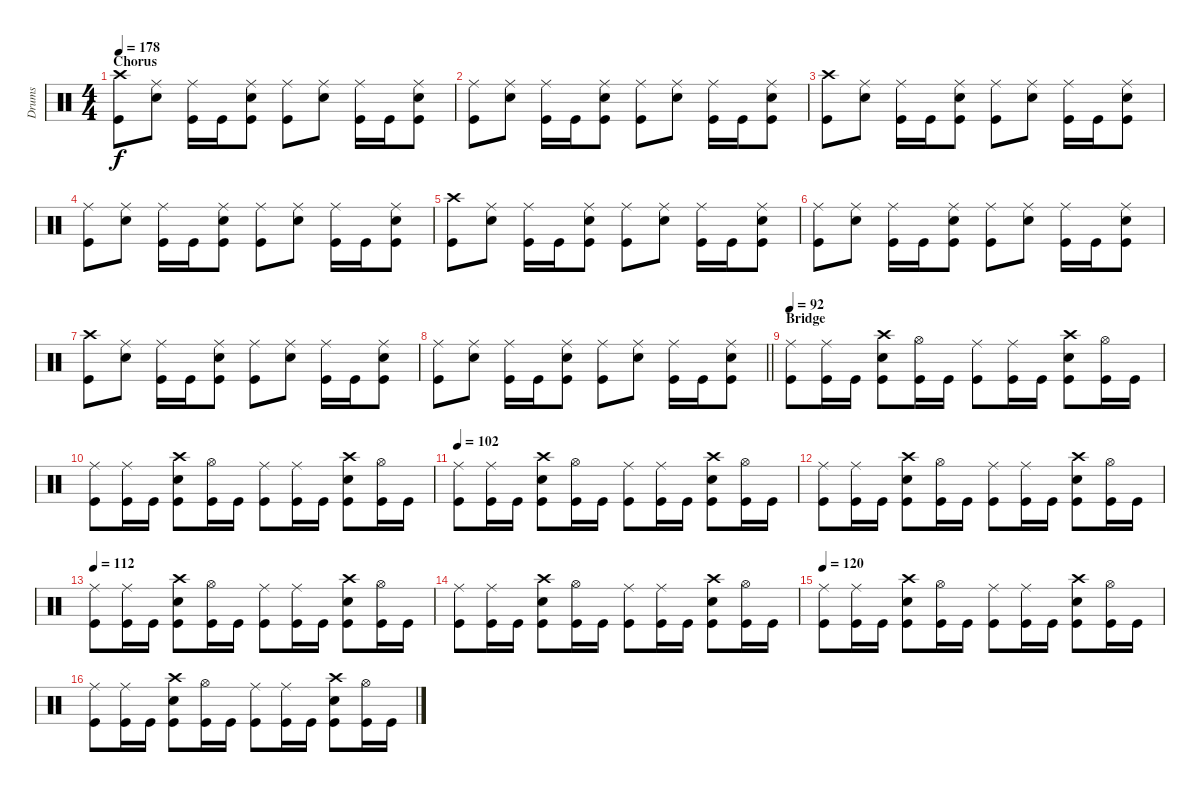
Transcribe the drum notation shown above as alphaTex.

\track ("Drums" "Drums") {instrument percussion}
\staff {score}
\articulation defaults
\ts (4 4)
\section ("" "Chorus")
\tempo 178
\clef neutral
\ks c
("Kick (hit)" "Crash high (hit)").8{dy f} ("Snare (hit) 2" "Ride (middle)").8 ("Kick (hit)" "Ride (middle)").16 "Kick (hit)".16 ("Kick (hit)" "Ride (middle)" "Snare (hit) 2").8 ("Kick (hit)" "Ride (middle)").8 ("Snare (hit) 2" "Ride (middle)").8 ("Kick (hit)" "Ride (middle)").16 "Kick (hit)".16 ("Kick (hit)" "Ride (middle)" "Snare (hit) 2").8 |
("Kick (hit)" "Ride (middle)").8 ("Snare (hit) 2" "Ride (middle)").8 ("Kick (hit)" "Ride (middle)").16 "Kick (hit)".16 ("Kick (hit)" "Ride (middle)" "Snare (hit) 2").8 ("Kick (hit)" "Ride (middle)").8 ("Snare (hit) 2" "Ride (middle)").8 ("Kick (hit)" "Ride (middle)").16 "Kick (hit)".16 ("Kick (hit)" "Ride (middle)" "Snare (hit) 2").8 |
("Kick (hit)" "Crash high (hit)").8 ("Snare (hit) 2" "Ride (middle)").8 ("Kick (hit)" "Ride (middle)").16 "Kick (hit)".16 ("Kick (hit)" "Ride (middle)" "Snare (hit) 2").8 ("Kick (hit)" "Ride (middle)").8 ("Snare (hit) 2" "Ride (middle)").8 ("Kick (hit)" "Ride (middle)").16 "Kick (hit)".16 ("Kick (hit)" "Ride (middle)" "Snare (hit) 2").8 |
("Kick (hit)" "Ride (middle)").8 ("Snare (hit) 2" "Ride (middle)").8 ("Kick (hit)" "Ride (middle)").16 "Kick (hit)".16 ("Kick (hit)" "Ride (middle)" "Snare (hit) 2").8 ("Kick (hit)" "Ride (middle)").8 ("Snare (hit) 2" "Ride (middle)").8 ("Kick (hit)" "Ride (middle)").16 "Kick (hit)".16 ("Kick (hit)" "Ride (middle)" "Snare (hit) 2").8 |
("Kick (hit)" "Crash high (hit)").8 ("Snare (hit) 2" "Ride (middle)").8 ("Kick (hit)" "Ride (middle)").16 "Kick (hit)".16 ("Kick (hit)" "Ride (middle)" "Snare (hit) 2").8 ("Kick (hit)" "Ride (middle)").8 ("Snare (hit) 2" "Ride (middle)").8 ("Kick (hit)" "Ride (middle)").16 "Kick (hit)".16 ("Kick (hit)" "Ride (middle)" "Snare (hit) 2").8 |
("Kick (hit)" "Ride (middle)").8 ("Snare (hit) 2" "Ride (middle)").8 ("Kick (hit)" "Ride (middle)").16 "Kick (hit)".16 ("Kick (hit)" "Ride (middle)" "Snare (hit) 2").8 ("Kick (hit)" "Ride (middle)").8 ("Snare (hit) 2" "Ride (middle)").8 ("Kick (hit)" "Ride (middle)").16 "Kick (hit)".16 ("Kick (hit)" "Ride (middle)" "Snare (hit) 2").8 |
("Kick (hit)" "Crash high (hit)").8 ("Snare (hit) 2" "Ride (middle)").8 ("Kick (hit)" "Ride (middle)").16 "Kick (hit)".16 ("Kick (hit)" "Ride (middle)" "Snare (hit) 2").8 ("Kick (hit)" "Ride (middle)").8 ("Snare (hit) 2" "Ride (middle)").8 ("Kick (hit)" "Ride (middle)").16 "Kick (hit)".16 ("Kick (hit)" "Ride (middle)" "Snare (hit) 2").8 |
\barLineRight lightlight
("Kick (hit)" "Ride (middle)").8 ("Snare (hit) 2" "Ride (middle)").8 ("Kick (hit)" "Ride (middle)").16 "Kick (hit)".16 ("Kick (hit)" "Ride (middle)" "Snare (hit) 2").8 ("Kick (hit)" "Ride (middle)").8 ("Snare (hit) 2" "Ride (middle)").8 ("Kick (hit)" "Ride (middle)").16 "Kick (hit)".16 ("Kick (hit)" "Ride (middle)" "Snare (hit) 2").8 |
\section ("" "Bridge")
\tempo 92
("Ride (middle)" "Kick (hit)").8 ("Ride (middle)" "Kick (hit)").16 "Kick (hit)".16 ("Crash high (hit)" "Kick (hit)" "Snare (hit) 2").8 ("Hi-Hat (open)" "Kick (hit)").16 "Kick (hit)".16 ("Ride (middle)" "Kick (hit)").8 ("Ride (middle)" "Kick (hit)").16 "Kick (hit)".16 ("Crash high (hit)" "Kick (hit)" "Snare (hit) 2").8 ("Hi-Hat (open)" "Kick (hit)").16 "Kick (hit)".16 |
("Ride (middle)" "Kick (hit)").8 ("Ride (middle)" "Kick (hit)").16 "Kick (hit)".16 ("Crash high (hit)" "Kick (hit)" "Snare (hit) 2").8 ("Hi-Hat (open)" "Kick (hit)").16 "Kick (hit)".16 ("Ride (middle)" "Kick (hit)").8 ("Ride (middle)" "Kick (hit)").16 "Kick (hit)".16 ("Crash high (hit)" "Kick (hit)" "Snare (hit) 2").8 ("Hi-Hat (open)" "Kick (hit)").16 "Kick (hit)".16 |
\tempo 102
("Ride (middle)" "Kick (hit)").8 ("Ride (middle)" "Kick (hit)").16 "Kick (hit)".16 ("Crash high (hit)" "Kick (hit)" "Snare (hit) 2").8 ("Hi-Hat (open)" "Kick (hit)").16 "Kick (hit)".16 ("Ride (middle)" "Kick (hit)").8 ("Ride (middle)" "Kick (hit)").16 "Kick (hit)".16 ("Crash high (hit)" "Kick (hit)" "Snare (hit) 2").8 ("Hi-Hat (open)" "Kick (hit)").16 "Kick (hit)".16 |
("Ride (middle)" "Kick (hit)").8 ("Ride (middle)" "Kick (hit)").16 "Kick (hit)".16 ("Crash high (hit)" "Kick (hit)" "Snare (hit) 2").8 ("Hi-Hat (open)" "Kick (hit)").16 "Kick (hit)".16 ("Ride (middle)" "Kick (hit)").8 ("Ride (middle)" "Kick (hit)").16 "Kick (hit)".16 ("Crash high (hit)" "Kick (hit)" "Snare (hit) 2").8 ("Hi-Hat (open)" "Kick (hit)").16 "Kick (hit)".16 |
\tempo 112
("Ride (middle)" "Kick (hit)").8 ("Ride (middle)" "Kick (hit)").16 "Kick (hit)".16 ("Crash high (hit)" "Kick (hit)" "Snare (hit) 2").8 ("Hi-Hat (open)" "Kick (hit)").16 "Kick (hit)".16 ("Ride (middle)" "Kick (hit)").8 ("Ride (middle)" "Kick (hit)").16 "Kick (hit)".16 ("Crash high (hit)" "Kick (hit)" "Snare (hit) 2").8 ("Hi-Hat (open)" "Kick (hit)").16 "Kick (hit)".16 |
("Ride (middle)" "Kick (hit)").8 ("Ride (middle)" "Kick (hit)").16 "Kick (hit)".16 ("Crash high (hit)" "Kick (hit)" "Snare (hit) 2").8 ("Hi-Hat (open)" "Kick (hit)").16 "Kick (hit)".16 ("Ride (middle)" "Kick (hit)").8 ("Ride (middle)" "Kick (hit)").16 "Kick (hit)".16 ("Crash high (hit)" "Kick (hit)" "Snare (hit) 2").8 ("Hi-Hat (open)" "Kick (hit)").16 "Kick (hit)".16 |
\tempo 120
("Ride (middle)" "Kick (hit)").8 ("Ride (middle)" "Kick (hit)").16 "Kick (hit)".16 ("Crash high (hit)" "Kick (hit)" "Snare (hit) 2").8 ("Hi-Hat (open)" "Kick (hit)").16 "Kick (hit)".16 ("Ride (middle)" "Kick (hit)").8 ("Ride (middle)" "Kick (hit)").16 "Kick (hit)".16 ("Crash high (hit)" "Kick (hit)" "Snare (hit) 2").8 ("Hi-Hat (open)" "Kick (hit)").16 "Kick (hit)".16 |
("Ride (middle)" "Kick (hit)").8 ("Ride (middle)" "Kick (hit)").16 "Kick (hit)".16 ("Crash high (hit)" "Kick (hit)" "Snare (hit) 2").8 ("Hi-Hat (open)" "Kick (hit)").16 "Kick (hit)".16 ("Ride (middle)" "Kick (hit)").8 ("Ride (middle)" "Kick (hit)").16 "Kick (hit)".16 ("Crash high (hit)" "Kick (hit)" "Snare (hit) 2").8 ("Hi-Hat (open)" "Kick (hit)").16 "Kick (hit)".16
